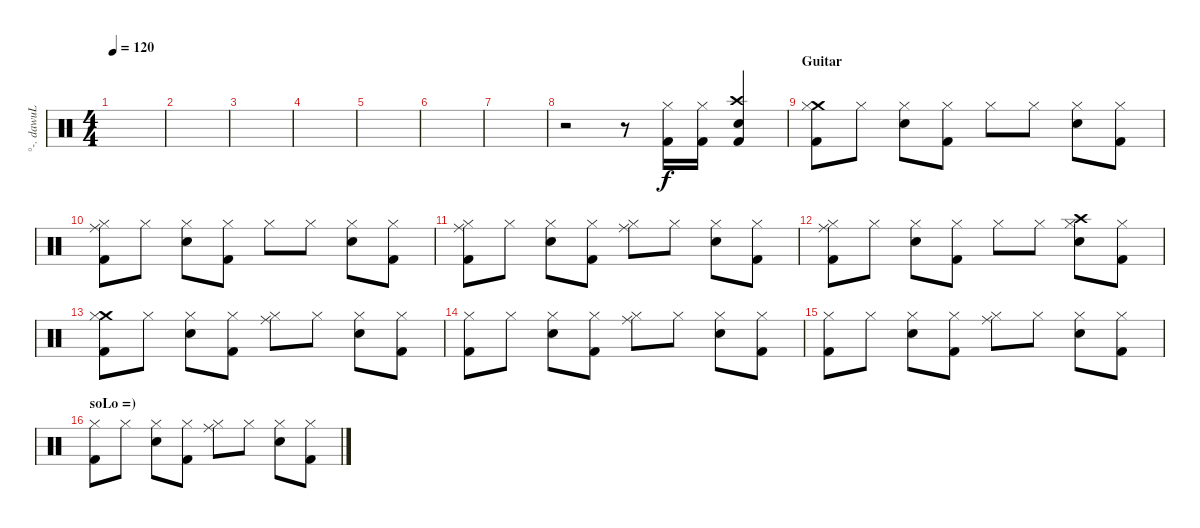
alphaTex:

\track ("°-. dawuL .-°" "°-. dawuL ") {instrument percussion}
\staff {score}
\articulation defaults
\ts (4 4)
\tempo 120
\clef neutral
\ks c
|
|
|
|
|
|
|
r.2 r.8 ("Hi-Hat (closed)" "Kick (hit) 2").16 ("Hi-Hat (closed)" "Kick (hit) 2").16 ("Crash high (hit)" "Electric Snare (hit)" "Kick (hit) 2").4 |
\section ("" "Guitar")
("Crash medium (hit)" "Kick (hit) 2" "Hi-Hat (closed)").8 "Hi-Hat (closed)".8 ("Electric Snare (hit)" "Hi-Hat (closed)").8 ("Kick (hit) 2" "Hi-Hat (closed)").8 "Hi-Hat (closed)".8 "Hi-Hat (closed)".8 ("Electric Snare (hit)" "Hi-Hat (closed)").8 ("Kick (hit) 2" "Hi-Hat (closed)").8 |
("Ride (middle)" "Kick (hit) 2" "Hi-Hat (closed)").8 "Hi-Hat (closed)".8 ("Electric Snare (hit)" "Hi-Hat (closed)").8 ("Kick (hit) 2" "Hi-Hat (closed)").8 "Hi-Hat (closed)".8 "Hi-Hat (closed)".8 ("Electric Snare (hit)" "Hi-Hat (closed)").8 ("Kick (hit) 2" "Hi-Hat (closed)").8 |
("Ride (middle)" "Kick (hit) 2" "Hi-Hat (closed)").8 "Hi-Hat (closed)".8 ("Electric Snare (hit)" "Hi-Hat (closed)").8 ("Kick (hit) 2" "Hi-Hat (closed)").8 ("Ride (middle)" "Hi-Hat (closed)").8 "Hi-Hat (closed)".8 ("Electric Snare (hit)" "Hi-Hat (closed)").8 ("Kick (hit) 2" "Hi-Hat (closed)").8 |
("Ride (middle)" "Kick (hit) 2" "Hi-Hat (closed)").8 "Hi-Hat (closed)".8 ("Electric Snare (hit)" "Hi-Hat (closed)").8 ("Kick (hit) 2" "Hi-Hat (closed)").8 "Hi-Hat (closed)".8 "Hi-Hat (closed)".8 ("Crash high (hit)" "Electric Snare (hit)" "Hi-Hat (closed)").8 ("Kick (hit) 2" "Hi-Hat (closed)").8 |
("Crash medium (hit)" "Kick (hit) 2" "Hi-Hat (closed)").8 "Hi-Hat (closed)".8 ("Electric Snare (hit)" "Hi-Hat (closed)").8 ("Kick (hit) 2" "Hi-Hat (closed)").8 ("Ride (middle)" "Hi-Hat (closed)").8 "Hi-Hat (closed)".8 ("Electric Snare (hit)" "Hi-Hat (closed)").8 ("Kick (hit) 2" "Hi-Hat (closed)").8 |
("Kick (hit) 2" "Hi-Hat (closed)").8 "Hi-Hat (closed)".8 ("Electric Snare (hit)" "Hi-Hat (closed)").8 ("Kick (hit) 2" "Hi-Hat (closed)").8 ("Ride (middle)" "Hi-Hat (closed)").8 "Hi-Hat (closed)".8 ("Electric Snare (hit)" "Hi-Hat (closed)").8 ("Kick (hit) 2" "Hi-Hat (closed)").8 |
("Kick (hit) 2" "Hi-Hat (closed)").8 "Hi-Hat (closed)".8 ("Electric Snare (hit)" "Hi-Hat (closed)").8 ("Kick (hit) 2" "Hi-Hat (closed)").8 ("Ride (middle)" "Hi-Hat (closed)").8 "Hi-Hat (closed)".8 ("Electric Snare (hit)" "Hi-Hat (closed)").8 ("Kick (hit) 2" "Hi-Hat (closed)").8 |
\section ("" "soLo =)")
("Kick (hit) 2" "Hi-Hat (closed)").8 "Hi-Hat (closed)".8 ("Electric Snare (hit)" "Hi-Hat (closed)").8 ("Kick (hit) 2" "Hi-Hat (closed)").8 ("Ride (middle)" "Hi-Hat (closed)").8 "Hi-Hat (closed)".8 ("Electric Snare (hit)" "Hi-Hat (closed)").8 ("Kick (hit) 2" "Hi-Hat (closed)").8
